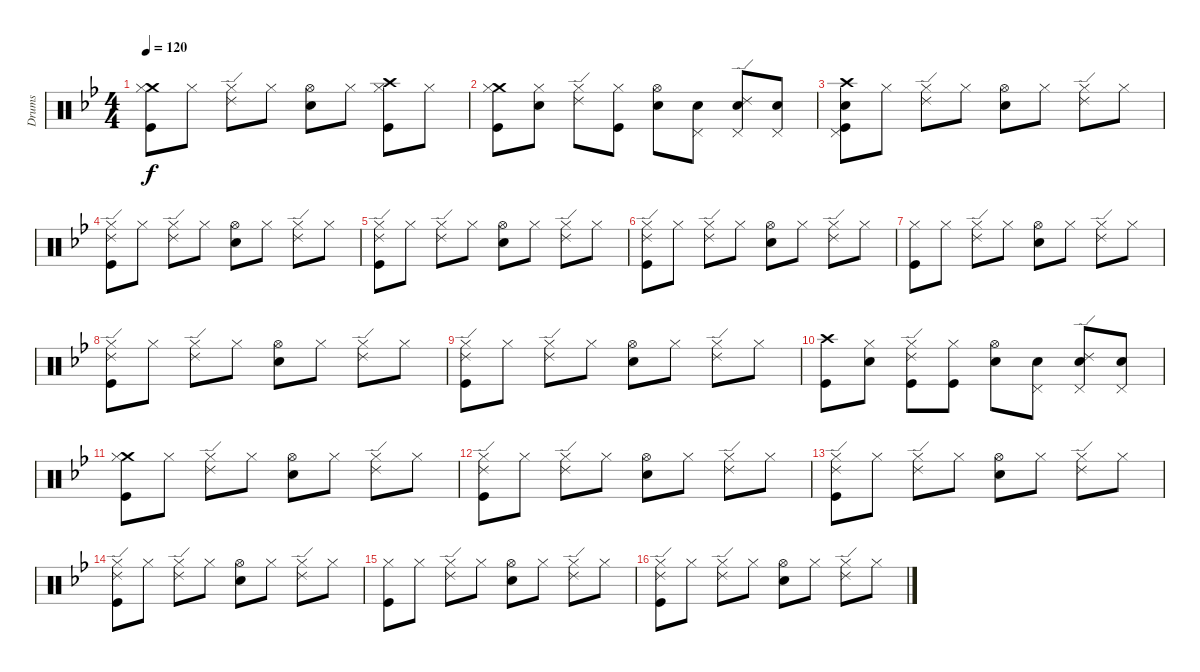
\track ("Drums" "Drums") {instrument percussion}
\staff {score}
\articulation defaults
\ts (4 4)
\tempo 120
\clef neutral
\ks gminor
("Crash medium (hit)" "Hi-Hat (closed)" "Kick (hit)").8{dy f} "Hi-Hat (closed)".8 ("Hi-Hat (closed)" "Ride (edge) 2").8 "Hi-Hat (closed)".8 ("Hi-Hat (open)" "Electric Snare (hit)").8 "Hi-Hat (closed)".8 ("Crash high (hit)" "Hi-Hat (closed)" "Kick (hit)").8 "Hi-Hat (closed)".8 |
("Crash medium (hit)" "Hi-Hat (closed)" "Kick (hit)").8 ("Hi-Hat (closed)" "Electric Snare (hit)").8 ("Hi-Hat (closed)" "Ride (edge) 2").8 ("Hi-Hat (closed)" "Kick (hit)").8 ("Hi-Hat (open)" "Electric Snare (hit)").8 ("Pedal Hi-Hat (hit)" "Electric Snare (hit)").8 ("Pedal Hi-Hat (hit)" "Ride (edge) 2" "Electric Snare (hit)").8 ("Pedal Hi-Hat (hit)" "Electric Snare (hit)").8 |
("Crash high (hit)" "Pedal Hi-Hat (hit)" "Electric Snare (hit)" "Kick (hit)").8 "Hi-Hat (closed)".8 ("Hi-Hat (closed)" "Ride (edge) 2").8 "Hi-Hat (closed)".8 ("Hi-Hat (open)" "Electric Snare (hit)").8 "Hi-Hat (closed)".8 ("Hi-Hat (closed)" "Ride (edge) 2").8 "Hi-Hat (closed)".8 |
("Hi-Hat (closed)" "Ride (edge) 2" "Kick (hit)").8 "Hi-Hat (closed)".8 ("Hi-Hat (closed)" "Ride (edge) 2").8 "Hi-Hat (closed)".8 ("Hi-Hat (open)" "Electric Snare (hit)").8 "Hi-Hat (closed)".8 ("Hi-Hat (closed)" "Ride (edge) 2").8 "Hi-Hat (closed)".8 |
("Hi-Hat (closed)" "Ride (edge) 2" "Kick (hit)").8 "Hi-Hat (closed)".8 ("Hi-Hat (closed)" "Ride (edge) 2").8 "Hi-Hat (closed)".8 ("Hi-Hat (open)" "Electric Snare (hit)").8 "Hi-Hat (closed)".8 ("Hi-Hat (closed)" "Ride (edge) 2").8 "Hi-Hat (closed)".8 |
("Hi-Hat (closed)" "Ride (edge) 2" "Kick (hit)").8 "Hi-Hat (closed)".8 ("Hi-Hat (closed)" "Ride (edge) 2").8 "Hi-Hat (closed)".8 ("Hi-Hat (open)" "Electric Snare (hit)").8 "Hi-Hat (closed)".8 ("Hi-Hat (closed)" "Ride (edge) 2").8 "Hi-Hat (closed)".8 |
("Hi-Hat (closed)" "Kick (hit)").8 "Hi-Hat (closed)".8 ("Hi-Hat (closed)" "Ride (edge) 2").8 "Hi-Hat (closed)".8 ("Hi-Hat (open)" "Electric Snare (hit)").8 "Hi-Hat (closed)".8 ("Hi-Hat (closed)" "Ride (edge) 2").8 "Hi-Hat (closed)".8 |
("Hi-Hat (closed)" "Ride (edge) 2" "Kick (hit)").8 "Hi-Hat (closed)".8 ("Hi-Hat (closed)" "Ride (edge) 2").8 "Hi-Hat (closed)".8 ("Hi-Hat (open)" "Electric Snare (hit)").8 "Hi-Hat (closed)".8 ("Hi-Hat (closed)" "Ride (edge) 2").8 "Hi-Hat (closed)".8 |
("Hi-Hat (closed)" "Ride (edge) 2" "Kick (hit)").8 "Hi-Hat (closed)".8 ("Hi-Hat (closed)" "Ride (edge) 2").8 "Hi-Hat (closed)".8 ("Hi-Hat (open)" "Electric Snare (hit)").8 "Hi-Hat (closed)".8 ("Hi-Hat (closed)" "Ride (edge) 2").8 "Hi-Hat (closed)".8 |
("Crash high (hit)" "Kick (hit)").8 ("Hi-Hat (closed)" "Electric Snare (hit)").8 ("Hi-Hat (closed)" "Ride (edge) 2" "Kick (hit)").8 ("Hi-Hat (closed)" "Kick (hit)").8 ("Hi-Hat (open)" "Electric Snare (hit)").8 ("Pedal Hi-Hat (hit)" "Electric Snare (hit)").8 ("Pedal Hi-Hat (hit)" "Ride (edge) 2" "Electric Snare (hit)").8 ("Pedal Hi-Hat (hit)" "Electric Snare (hit)").8 |
("Crash medium (hit)" "Hi-Hat (closed)" "Kick (hit)").8 "Hi-Hat (closed)".8 ("Hi-Hat (closed)" "Ride (edge) 2").8 "Hi-Hat (closed)".8 ("Hi-Hat (open)" "Electric Snare (hit)").8 "Hi-Hat (closed)".8 ("Hi-Hat (closed)" "Ride (edge) 2").8 "Hi-Hat (closed)".8 |
("Hi-Hat (closed)" "Ride (edge) 2" "Kick (hit)").8 "Hi-Hat (closed)".8 ("Hi-Hat (closed)" "Ride (edge) 2").8 "Hi-Hat (closed)".8 ("Hi-Hat (open)" "Electric Snare (hit)").8 "Hi-Hat (closed)".8 ("Hi-Hat (closed)" "Ride (edge) 2").8 "Hi-Hat (closed)".8 |
("Hi-Hat (closed)" "Ride (edge) 2" "Kick (hit)").8 "Hi-Hat (closed)".8 ("Hi-Hat (closed)" "Ride (edge) 2").8 "Hi-Hat (closed)".8 ("Hi-Hat (open)" "Electric Snare (hit)").8 "Hi-Hat (closed)".8 ("Hi-Hat (closed)" "Ride (edge) 2").8 "Hi-Hat (closed)".8 |
("Hi-Hat (closed)" "Ride (edge) 2" "Kick (hit)").8 "Hi-Hat (closed)".8 ("Hi-Hat (closed)" "Ride (edge) 2").8 "Hi-Hat (closed)".8 ("Hi-Hat (open)" "Electric Snare (hit)").8 "Hi-Hat (closed)".8 ("Hi-Hat (closed)" "Ride (edge) 2").8 "Hi-Hat (closed)".8 |
("Hi-Hat (closed)" "Kick (hit)").8 "Hi-Hat (closed)".8 ("Hi-Hat (closed)" "Ride (edge) 2").8 "Hi-Hat (closed)".8 ("Hi-Hat (open)" "Electric Snare (hit)").8 "Hi-Hat (closed)".8 ("Hi-Hat (closed)" "Ride (edge) 2").8 "Hi-Hat (closed)".8 |
("Hi-Hat (closed)" "Ride (edge) 2" "Kick (hit)").8 "Hi-Hat (closed)".8 ("Hi-Hat (closed)" "Ride (edge) 2").8 "Hi-Hat (closed)".8 ("Hi-Hat (open)" "Electric Snare (hit)").8 "Hi-Hat (closed)".8 ("Hi-Hat (closed)" "Ride (edge) 2").8 "Hi-Hat (closed)".8
